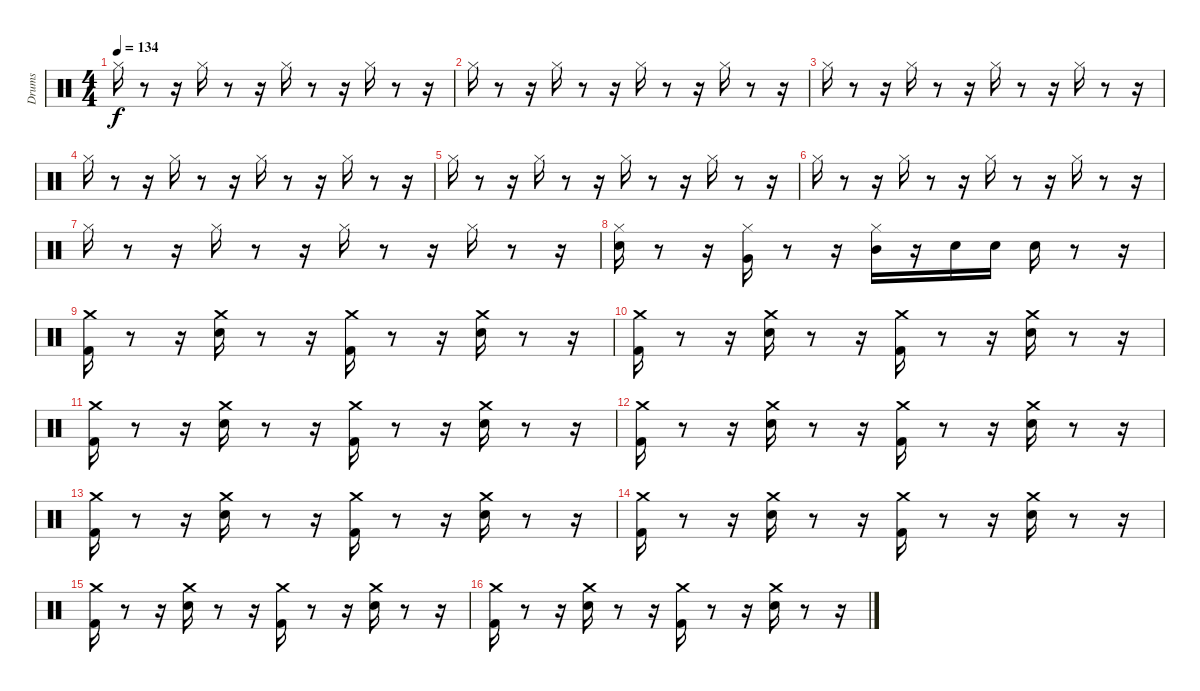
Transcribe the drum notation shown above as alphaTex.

\track ("Drums               " "Drums     ") {instrument percussion}
\staff {score}
\articulation defaults
\ts (4 4)
\tempo 134
\clef neutral
\ks c "Hi-Hat (closed)".16{dy f}
r.8 r.16 "Hi-Hat (closed)".16 r.8 r.16 "Hi-Hat (closed)".16 r.8 r.16 "Hi-Hat (closed)".16 r.8 r.16 |
"Hi-Hat (closed)".16 r.8 r.16 "Hi-Hat (closed)".16 r.8 r.16 "Hi-Hat (closed)".16 r.8 r.16 "Hi-Hat (closed)".16 r.8 r.16 |
"Hi-Hat (closed)".16 r.8 r.16 "Hi-Hat (closed)".16 r.8 r.16 "Hi-Hat (closed)".16 r.8 r.16 "Hi-Hat (closed)".16 r.8 r.16 |
"Hi-Hat (closed)".16 r.8 r.16 "Hi-Hat (closed)".16 r.8 r.16 "Hi-Hat (closed)".16 r.8 r.16 "Hi-Hat (closed)".16 r.8 r.16 |
"Hi-Hat (closed)".16 r.8 r.16 "Hi-Hat (closed)".16 r.8 r.16 "Hi-Hat (closed)".16 r.8 r.16 "Hi-Hat (closed)".16 r.8 r.16 |
"Hi-Hat (closed)".16 r.8 r.16 "Hi-Hat (closed)".16 r.8 r.16 "Hi-Hat (closed)".16 r.8 r.16 "Hi-Hat (closed)".16 r.8 r.16 |
"Hi-Hat (closed)".16 r.8 r.16 "Hi-Hat (closed)".16 r.8 r.16 "Hi-Hat (closed)".16 r.8 r.16 "Hi-Hat (closed)".16 r.8 r.16 |
("Hi-Hat (closed)" "Electric Snare (hit)").16 r.8 r.16 ("Hi-Hat (closed)" "Very Low Tom (hit)").16 r.8 r.16 ("Hi-Hat (closed)" "Mid Tom (hit)").16 r.16 "Electric Snare (hit)".16 "Electric Snare (hit)".16 "Electric Snare (hit)".16 r.8 r.16 |
("Kick (hit) 2" "Crash medium (hit)").16 r.8 r.16 ("Snare (hit) 2" "Crash medium (hit)").16 r.8 r.16 ("Kick (hit) 2" "Crash medium (hit)").16 r.8 r.16 ("Snare (hit) 2" "Crash medium (hit)").16 r.8 r.16 |
("Kick (hit) 2" "Crash medium (hit)").16 r.8 r.16 ("Snare (hit) 2" "Crash medium (hit)").16 r.8 r.16 ("Kick (hit) 2" "Crash medium (hit)").16 r.8 r.16 ("Snare (hit) 2" "Crash medium (hit)").16 r.8 r.16 |
("Kick (hit) 2" "Crash medium (hit)").16 r.8 r.16 ("Snare (hit) 2" "Crash medium (hit)").16 r.8 r.16 ("Kick (hit) 2" "Crash medium (hit)").16 r.8 r.16 ("Snare (hit) 2" "Crash medium (hit)").16 r.8 r.16 |
("Kick (hit) 2" "Crash medium (hit)").16 r.8 r.16 ("Snare (hit) 2" "Crash medium (hit)").16 r.8 r.16 ("Kick (hit) 2" "Crash medium (hit)").16 r.8 r.16 ("Snare (hit) 2" "Crash medium (hit)").16 r.8 r.16 |
("Kick (hit) 2" "Crash medium (hit)").16 r.8 r.16 ("Snare (hit) 2" "Crash medium (hit)").16 r.8 r.16 ("Kick (hit) 2" "Crash medium (hit)").16 r.8 r.16 ("Snare (hit) 2" "Crash medium (hit)").16 r.8 r.16 |
("Kick (hit) 2" "Crash medium (hit)").16 r.8 r.16 ("Snare (hit) 2" "Crash medium (hit)").16 r.8 r.16 ("Kick (hit) 2" "Crash medium (hit)").16 r.8 r.16 ("Snare (hit) 2" "Crash medium (hit)").16 r.8 r.16 |
("Kick (hit) 2" "Crash medium (hit)").16 r.8 r.16 ("Snare (hit) 2" "Crash medium (hit)").16 r.8 r.16 ("Kick (hit) 2" "Crash medium (hit)").16 r.8 r.16 ("Snare (hit) 2" "Crash medium (hit)").16 r.8 r.16 |
("Kick (hit) 2" "Crash medium (hit)").16 r.8 r.16 ("Snare (hit) 2" "Crash medium (hit)").16 r.8 r.16 ("Kick (hit) 2" "Crash medium (hit)").16 r.8 r.16 ("Snare (hit) 2" "Crash medium (hit)").16 r.8 r.16
